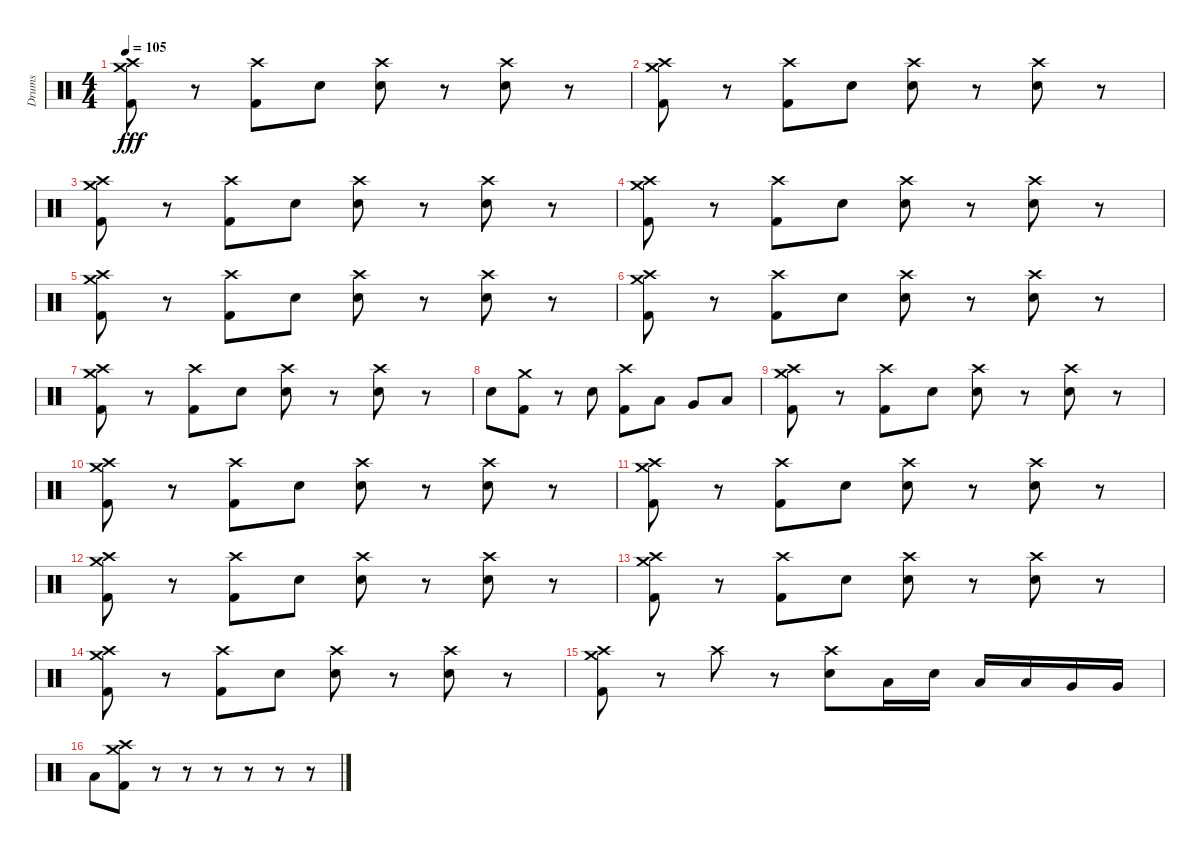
\track ("Drums" "Drums") {instrument percussion}
\staff {score}
\articulation defaults
\ts (4 4)
\tempo 105
\clef neutral
\ks c
("Crash medium (hit)" "Crash high (hit)" "Kick (hit) 2").8{dy fff} r.8 ("Crash high (hit)" "Kick (hit) 2").8 "Electric Snare (hit)".8 ("Crash high (hit)" "Electric Snare (hit)").8 r.8 ("Crash high (hit)" "Electric Snare (hit)").8 r.8 |
("Crash medium (hit)" "Crash high (hit)" "Kick (hit) 2").8 r.8 ("Crash high (hit)" "Kick (hit) 2").8 "Electric Snare (hit)".8 ("Crash high (hit)" "Electric Snare (hit)").8 r.8 ("Crash high (hit)" "Electric Snare (hit)").8 r.8 |
("Crash medium (hit)" "Crash high (hit)" "Kick (hit) 2").8 r.8 ("Crash high (hit)" "Kick (hit) 2").8 "Electric Snare (hit)".8 ("Crash high (hit)" "Electric Snare (hit)").8 r.8 ("Crash high (hit)" "Electric Snare (hit)").8 r.8 |
("Crash medium (hit)" "Crash high (hit)" "Kick (hit) 2").8 r.8 ("Crash high (hit)" "Kick (hit) 2").8 "Electric Snare (hit)".8 ("Crash high (hit)" "Electric Snare (hit)").8 r.8 ("Crash high (hit)" "Electric Snare (hit)").8 r.8 |
("Crash medium (hit)" "Crash high (hit)" "Kick (hit) 2").8 r.8 ("Crash high (hit)" "Kick (hit) 2").8 "Electric Snare (hit)".8 ("Crash high (hit)" "Electric Snare (hit)").8 r.8 ("Crash high (hit)" "Electric Snare (hit)").8 r.8 |
("Crash medium (hit)" "Crash high (hit)" "Kick (hit) 2").8 r.8 ("Crash high (hit)" "Kick (hit) 2").8 "Electric Snare (hit)".8 ("Crash high (hit)" "Electric Snare (hit)").8 r.8 ("Crash high (hit)" "Electric Snare (hit)").8 r.8 |
("Crash medium (hit)" "Crash high (hit)" "Kick (hit) 2").8 r.8 ("Crash high (hit)" "Kick (hit) 2").8 "Electric Snare (hit)".8 ("Crash high (hit)" "Electric Snare (hit)").8 r.8 ("Crash high (hit)" "Electric Snare (hit)").8 r.8 |
"Electric Snare (hit)".8 ("Crash medium (hit)" "Kick (hit) 2").8 r.8 "Electric Snare (hit)".8 ("Crash high (hit)" "Kick (hit) 2").8 "Low Tom (hit)".8 "Very Low Tom (hit)".8 "Low Floor Tom (hit)".8 |
("Crash medium (hit)" "Crash high (hit)" "Kick (hit) 2").8 r.8 ("Crash high (hit)" "Kick (hit) 2").8 "Electric Snare (hit)".8 ("Crash high (hit)" "Electric Snare (hit)").8 r.8 ("Crash high (hit)" "Electric Snare (hit)").8 r.8 |
("Crash medium (hit)" "Crash high (hit)" "Kick (hit) 2").8 r.8 ("Crash high (hit)" "Kick (hit) 2").8 "Electric Snare (hit)".8 ("Crash high (hit)" "Electric Snare (hit)").8 r.8 ("Crash high (hit)" "Electric Snare (hit)").8 r.8 |
("Crash medium (hit)" "Crash high (hit)" "Kick (hit) 2").8 r.8 ("Crash high (hit)" "Kick (hit) 2").8 "Electric Snare (hit)".8 ("Crash high (hit)" "Electric Snare (hit)").8 r.8 ("Crash high (hit)" "Electric Snare (hit)").8 r.8 |
("Crash medium (hit)" "Crash high (hit)" "Kick (hit) 2").8 r.8 ("Crash high (hit)" "Kick (hit) 2").8 "Electric Snare (hit)".8 ("Crash high (hit)" "Electric Snare (hit)").8 r.8 ("Crash high (hit)" "Electric Snare (hit)").8 r.8 |
("Crash medium (hit)" "Crash high (hit)" "Kick (hit) 2").8 r.8 ("Crash high (hit)" "Kick (hit) 2").8 "Electric Snare (hit)".8 ("Crash high (hit)" "Electric Snare (hit)").8 r.8 ("Crash high (hit)" "Electric Snare (hit)").8 r.8 |
("Crash medium (hit)" "Crash high (hit)" "Kick (hit) 2").8 r.8 ("Crash high (hit)" "Kick (hit) 2").8 "Electric Snare (hit)".8 ("Crash high (hit)" "Electric Snare (hit)").8 r.8 ("Crash high (hit)" "Electric Snare (hit)").8 r.8 |
("Crash medium (hit)" "Crash high (hit)" "Kick (hit) 2").8 r.8 "Crash high (hit)".8 r.8 ("Crash high (hit)" "Electric Snare (hit)").8 "Low Tom (hit)".16 "Electric Snare (hit)".16 "Low Tom (hit)".16 "Low Tom (hit)".16 "Very Low Tom (hit)".16 "Very Low Tom (hit)".16 |
"Low Floor Tom (hit)".8 ("Crash high (hit)" "Crash medium (hit)" "Kick (hit) 2").8 r.8 r.8 r.8 r.8 r.8 r.8
